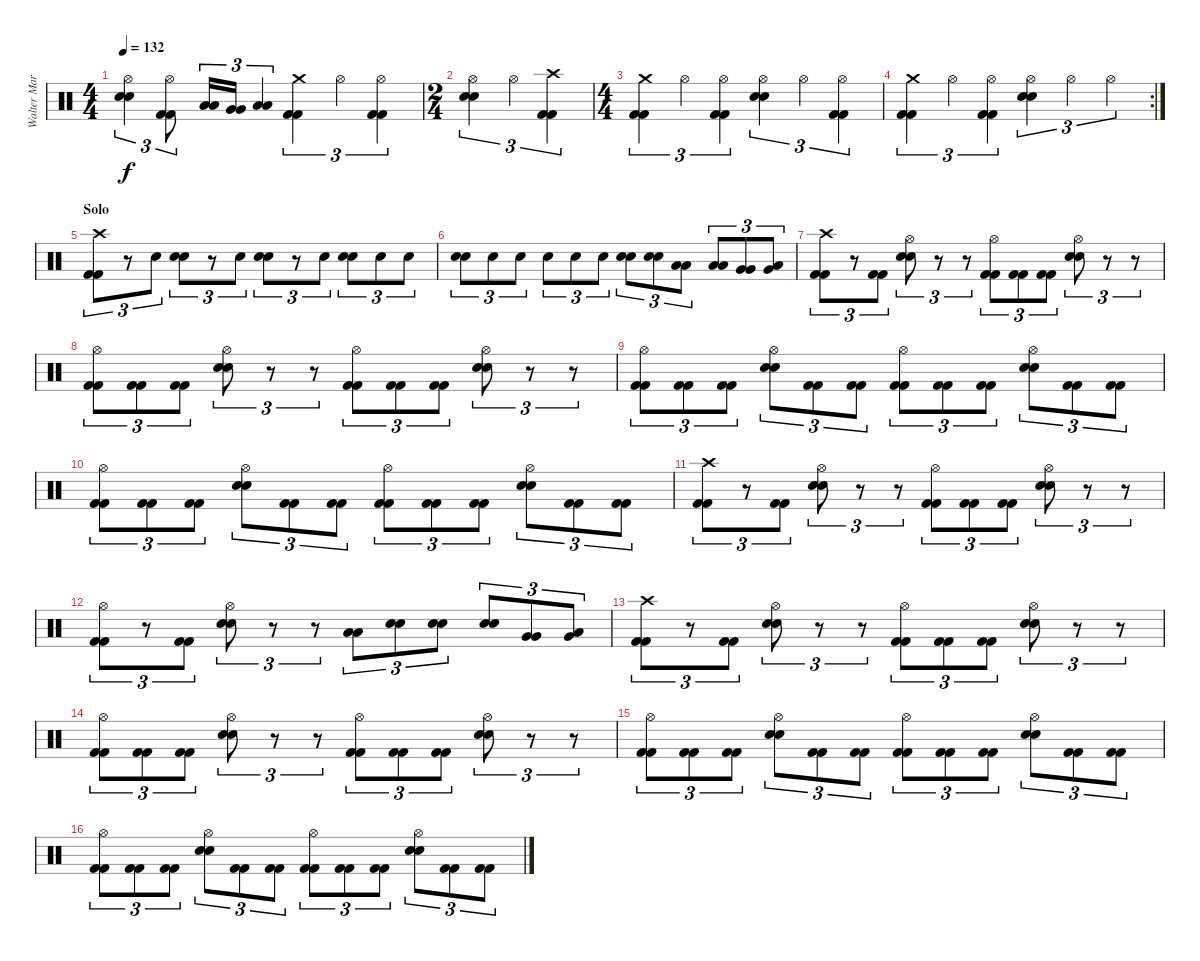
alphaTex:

\track ("Walter Martinez (bateria)" "Walter Mar") {instrument percussion}
\staff {score}
\articulation defaults
\ts (4 4)
\tempo 132
\clef neutral
\ks c
("Hi-Hat (open)" "Snare (hit) 2" "Snare (hit) 2").4{tu (3 2) dy f} ("Hi-Hat (open)" "Kick (hit) 2" "Kick (hit) 2").8{tu (3 2)} ("Low Tom (hit)" "Low Tom (hit)").16{tu (3 2)} ("Very Low Tom (hit)" "Very Low Tom (hit)").16{tu (3 2)} ("Low Floor Tom (hit)" "Low Floor Tom (hit)").4{tu (3 2)} ("Crash medium (hit)" "Kick (hit) 2" "Kick (hit) 2").4{tu (3 2)} "Hi-Hat (open)".4{tu (3 2)} ("Hi-Hat (open)" "Kick (hit) 2" "Kick (hit) 2").4{tu (3 2)} |
\ts (2 4)
("Hi-Hat (open)" "Snare (hit) 2" "Snare (hit) 2").4{tu (3 2)} "Hi-Hat (open)".4{tu (3 2)} ("Crash high (hit)" "Kick (hit) 2" "Kick (hit) 2").4{tu (3 2)} |
\ts (4 4)
("Crash medium (hit)" "Kick (hit) 2" "Kick (hit) 2").4{tu (3 2)} "Hi-Hat (open)".4{tu (3 2)} ("Hi-Hat (open)" "Kick (hit) 2" "Kick (hit) 2").4{tu (3 2)} ("Hi-Hat (open)" "Snare (hit) 2" "Snare (hit) 2").4{tu (3 2)} "Hi-Hat (open)".4{tu (3 2)} ("Hi-Hat (open)" "Kick (hit) 2" "Kick (hit) 2").4{tu (3 2)} |
\rc 2
("Crash medium (hit)" "Kick (hit) 2" "Kick (hit) 2").4{tu (3 2)} "Hi-Hat (open)".4{tu (3 2)} ("Hi-Hat (open)" "Kick (hit) 2" "Kick (hit) 2").4{tu (3 2)} ("Hi-Hat (open)" "Snare (hit) 2" "Snare (hit) 2").4{tu (3 2)} "Hi-Hat (open)".4{tu (3 2)} "Hi-Hat (open)".4{tu (3 2)} |
\section ("" "Solo")
("Crash high (hit)" "Kick (hit) 2" "Kick (hit) 2").8{tu (3 2)} r.8{tu (3 2)} "Snare (hit) 2".8{tu (3 2)} ("Snare (hit) 2" "Snare (hit) 2").8{tu (3 2)} r.8{tu (3 2)} "Snare (hit) 2".8{tu (3 2)} ("Snare (hit) 2" "Snare (hit) 2").8{tu (3 2)} r.8{tu (3 2)} "Snare (hit) 2".8{tu (3 2)} ("Snare (hit) 2" "Snare (hit) 2").8{tu (3 2)} "Snare (hit) 2".8{tu (3 2)} "Snare (hit) 2".8{tu (3 2)} |
("Snare (hit) 2" "Snare (hit) 2").8{tu (3 2)} "Snare (hit) 2".8{tu (3 2)} "Snare (hit) 2".8{tu (3 2)} "Snare (hit) 2".8{tu (3 2)} "Snare (hit) 2".8{tu (3 2)} "Snare (hit) 2".8{tu (3 2)} ("Snare (hit) 2" "Snare (hit) 2").8{tu (3 2)} ("Snare (hit) 2" "Snare (hit) 2").8{tu (3 2)} ("Low Tom (hit)" "Low Tom (hit)").8{tu (3 2)} ("Low Tom (hit)" "Low Tom (hit)").8{tu (3 2)} ("Very Low Tom (hit)" "Very Low Tom (hit)").8{tu (3 2)} ("Very Low Tom (hit)" "Low Floor Tom (hit)").8{tu (3 2)} |
("Crash high (hit)" "Kick (hit) 2" "Kick (hit) 2").8{tu (3 2)} r.8{tu (3 2)} ("Kick (hit) 2" "Kick (hit) 2").8{tu (3 2)} ("Hi-Hat (open)" "Snare (hit) 2" "Snare (hit) 2").8{tu (3 2)} r.8{tu (3 2)} r.8{tu (3 2)} ("Hi-Hat (open)" "Kick (hit) 2" "Kick (hit) 2").8{tu (3 2)} ("Kick (hit) 2" "Kick (hit) 2").8{tu (3 2)} ("Kick (hit) 2" "Kick (hit) 2").8{tu (3 2)} ("Hi-Hat (open)" "Snare (hit) 2" "Snare (hit) 2").8{tu (3 2)} r.8{tu (3 2)} r.8{tu (3 2)} |
("Hi-Hat (open)" "Kick (hit) 2" "Kick (hit) 2").8{tu (3 2)} ("Kick (hit) 2" "Kick (hit) 2").8{tu (3 2)} ("Kick (hit) 2" "Kick (hit) 2").8{tu (3 2)} ("Hi-Hat (open)" "Snare (hit) 2" "Snare (hit) 2").8{tu (3 2)} r.8{tu (3 2)} r.8{tu (3 2)} ("Hi-Hat (open)" "Kick (hit) 2" "Kick (hit) 2").8{tu (3 2)} ("Kick (hit) 2" "Kick (hit) 2").8{tu (3 2)} ("Kick (hit) 2" "Kick (hit) 2").8{tu (3 2)} ("Hi-Hat (open)" "Snare (hit) 2" "Snare (hit) 2").8{tu (3 2)} r.8{tu (3 2)} r.8{tu (3 2)} |
("Hi-Hat (open)" "Kick (hit) 2" "Kick (hit) 2").8{tu (3 2)} ("Kick (hit) 2" "Kick (hit) 2").8{tu (3 2)} ("Kick (hit) 2" "Kick (hit) 2").8{tu (3 2)} ("Hi-Hat (open)" "Snare (hit) 2" "Snare (hit) 2").8{tu (3 2)} ("Kick (hit) 2" "Kick (hit) 2").8{tu (3 2)} ("Kick (hit) 2" "Kick (hit) 2").8{tu (3 2)} ("Hi-Hat (open)" "Kick (hit) 2" "Kick (hit) 2").8{tu (3 2)} ("Kick (hit) 2" "Kick (hit) 2").8{tu (3 2)} ("Kick (hit) 2" "Kick (hit) 2").8{tu (3 2)} ("Hi-Hat (open)" "Snare (hit) 2" "Snare (hit) 2").8{tu (3 2)} ("Kick (hit) 2" "Kick (hit) 2").8{tu (3 2)} ("Kick (hit) 2" "Kick (hit) 2").8{tu (3 2)} |
("Hi-Hat (open)" "Kick (hit) 2" "Kick (hit) 2").8{tu (3 2)} ("Kick (hit) 2" "Kick (hit) 2").8{tu (3 2)} ("Kick (hit) 2" "Kick (hit) 2").8{tu (3 2)} ("Hi-Hat (open)" "Snare (hit) 2" "Snare (hit) 2").8{tu (3 2)} ("Kick (hit) 2" "Kick (hit) 2").8{tu (3 2)} ("Kick (hit) 2" "Kick (hit) 2").8{tu (3 2)} ("Hi-Hat (open)" "Kick (hit) 2" "Kick (hit) 2").8{tu (3 2)} ("Kick (hit) 2" "Kick (hit) 2").8{tu (3 2)} ("Kick (hit) 2" "Kick (hit) 2").8{tu (3 2)} ("Hi-Hat (open)" "Snare (hit) 2" "Snare (hit) 2").8{tu (3 2)} ("Kick (hit) 2" "Kick (hit) 2").8{tu (3 2)} ("Kick (hit) 2" "Kick (hit) 2").8{tu (3 2)} |
("Crash high (hit)" "Kick (hit) 2" "Kick (hit) 2").8{tu (3 2)} r.8{tu (3 2)} ("Kick (hit) 2" "Kick (hit) 2").8{tu (3 2)} ("Hi-Hat (open)" "Snare (hit) 2" "Snare (hit) 2").8{tu (3 2)} r.8{tu (3 2)} r.8{tu (3 2)} ("Hi-Hat (open)" "Kick (hit) 2" "Kick (hit) 2").8{tu (3 2)} ("Kick (hit) 2" "Kick (hit) 2").8{tu (3 2)} ("Kick (hit) 2" "Kick (hit) 2").8{tu (3 2)} ("Hi-Hat (open)" "Snare (hit) 2" "Snare (hit) 2").8{tu (3 2)} r.8{tu (3 2)} r.8{tu (3 2)} |
("Hi-Hat (open)" "Kick (hit) 2" "Kick (hit) 2").8{tu (3 2)} r.8{tu (3 2)} ("Kick (hit) 2" "Kick (hit) 2").8{tu (3 2)} ("Hi-Hat (open)" "Snare (hit) 2" "Snare (hit) 2").8{tu (3 2)} r.8{tu (3 2)} r.8{tu (3 2)} ("Low Tom (hit)" "Low Tom (hit)").8{tu (3 2)} ("Snare (hit) 2" "Snare (hit) 2").8{tu (3 2)} ("Snare (hit) 2" "Snare (hit) 2").8{tu (3 2)} ("Snare (hit) 2" "Snare (hit) 2").8{tu (3 2)} ("Very Low Tom (hit)" "Very Low Tom (hit)").8{tu (3 2)} ("Very Low Tom (hit)" "Low Floor Tom (hit)").8{tu (3 2)} |
("Crash high (hit)" "Kick (hit) 2" "Kick (hit) 2").8{tu (3 2)} r.8{tu (3 2)} ("Kick (hit) 2" "Kick (hit) 2").8{tu (3 2)} ("Hi-Hat (open)" "Snare (hit) 2" "Snare (hit) 2").8{tu (3 2)} r.8{tu (3 2)} r.8{tu (3 2)} ("Hi-Hat (open)" "Kick (hit) 2" "Kick (hit) 2").8{tu (3 2)} ("Kick (hit) 2" "Kick (hit) 2").8{tu (3 2)} ("Kick (hit) 2" "Kick (hit) 2").8{tu (3 2)} ("Hi-Hat (open)" "Snare (hit) 2" "Snare (hit) 2").8{tu (3 2)} r.8{tu (3 2)} r.8{tu (3 2)} |
("Hi-Hat (open)" "Kick (hit) 2" "Kick (hit) 2").8{tu (3 2)} ("Kick (hit) 2" "Kick (hit) 2").8{tu (3 2)} ("Kick (hit) 2" "Kick (hit) 2").8{tu (3 2)} ("Hi-Hat (open)" "Snare (hit) 2" "Snare (hit) 2").8{tu (3 2)} r.8{tu (3 2)} r.8{tu (3 2)} ("Hi-Hat (open)" "Kick (hit) 2" "Kick (hit) 2").8{tu (3 2)} ("Kick (hit) 2" "Kick (hit) 2").8{tu (3 2)} ("Kick (hit) 2" "Kick (hit) 2").8{tu (3 2)} ("Hi-Hat (open)" "Snare (hit) 2" "Snare (hit) 2").8{tu (3 2)} r.8{tu (3 2)} r.8{tu (3 2)} |
("Hi-Hat (open)" "Kick (hit) 2" "Kick (hit) 2").8{tu (3 2)} ("Kick (hit) 2" "Kick (hit) 2").8{tu (3 2)} ("Kick (hit) 2" "Kick (hit) 2").8{tu (3 2)} ("Hi-Hat (open)" "Snare (hit) 2" "Snare (hit) 2").8{tu (3 2)} ("Kick (hit) 2" "Kick (hit) 2").8{tu (3 2)} ("Kick (hit) 2" "Kick (hit) 2").8{tu (3 2)} ("Hi-Hat (open)" "Kick (hit) 2" "Kick (hit) 2").8{tu (3 2)} ("Kick (hit) 2" "Kick (hit) 2").8{tu (3 2)} ("Kick (hit) 2" "Kick (hit) 2").8{tu (3 2)} ("Hi-Hat (open)" "Snare (hit) 2" "Snare (hit) 2").8{tu (3 2)} ("Kick (hit) 2" "Kick (hit) 2").8{tu (3 2)} ("Kick (hit) 2" "Kick (hit) 2").8{tu (3 2)} |
("Hi-Hat (open)" "Kick (hit) 2" "Kick (hit) 2").8{tu (3 2)} ("Kick (hit) 2" "Kick (hit) 2").8{tu (3 2)} ("Kick (hit) 2" "Kick (hit) 2").8{tu (3 2)} ("Hi-Hat (open)" "Snare (hit) 2" "Snare (hit) 2").8{tu (3 2)} ("Kick (hit) 2" "Kick (hit) 2").8{tu (3 2)} ("Kick (hit) 2" "Kick (hit) 2").8{tu (3 2)} ("Hi-Hat (open)" "Kick (hit) 2" "Kick (hit) 2").8{tu (3 2)} ("Kick (hit) 2" "Kick (hit) 2").8{tu (3 2)} ("Kick (hit) 2" "Kick (hit) 2").8{tu (3 2)} ("Hi-Hat (open)" "Snare (hit) 2" "Snare (hit) 2").8{tu (3 2)} ("Kick (hit) 2" "Kick (hit) 2").8{tu (3 2)} ("Kick (hit) 2" "Kick (hit) 2").8{tu (3 2)}
